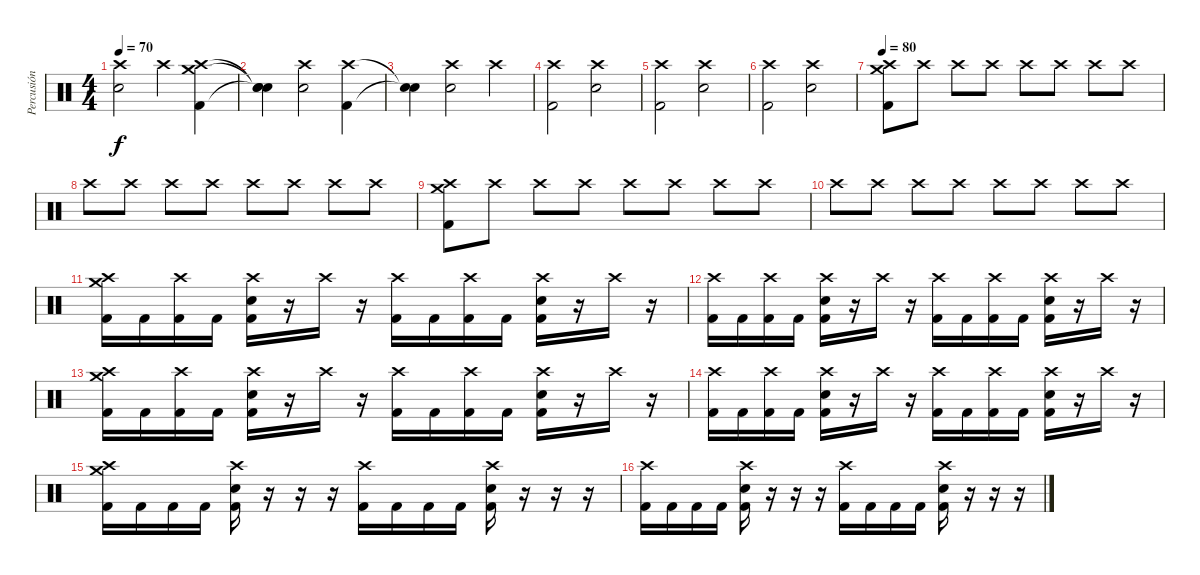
\track ("Percusión" "Percusión") {instrument percussion}
\staff {score}
\articulation defaults
\ts (4 4)
\tempo 70
\clef neutral
\ks c
("Crash high (hit)" "Snare (hit) 2").2{dy f} "Crash high (hit)".4 ("Crash medium (hit)" "Crash high (hit)" "Kick (hit) 2").4 |
("Snare (hit)"{t} "Snare (hit)"{t} "Snare (hit)"{t}).4 ("Crash high (hit)" "Snare (hit) 2").2 ("Crash high (hit)" "Kick (hit) 2").4 |
("Snare (hit)"{t} "Snare (hit)"{t}).4 ("Crash high (hit)" "Snare (hit) 2").2 "Crash high (hit)".4 |
("Crash high (hit)" "Kick (hit) 2").2 ("Crash high (hit)" "Snare (hit) 2").2 |
("Crash high (hit)" "Kick (hit) 2").2 ("Crash high (hit)" "Snare (hit) 2").2 |
("Crash high (hit)" "Kick (hit) 2").2 ("Crash high (hit)" "Snare (hit) 2").2 |
\tempo 80
("Crash medium (hit)" "Crash high (hit)" "Kick (hit) 2").8 "Crash high (hit)".8 "Crash high (hit)".8 "Crash high (hit)".8 "Crash high (hit)".8 "Crash high (hit)".8 "Crash high (hit)".8 "Crash high (hit)".8 |
"Crash high (hit)".8 "Crash high (hit)".8 "Crash high (hit)".8 "Crash high (hit)".8 "Crash high (hit)".8 "Crash high (hit)".8 "Crash high (hit)".8 "Crash high (hit)".8 |
("Crash medium (hit)" "Crash high (hit)" "Kick (hit) 2").8 "Crash high (hit)".8 "Crash high (hit)".8 "Crash high (hit)".8 "Crash high (hit)".8 "Crash high (hit)".8 "Crash high (hit)".8 "Crash high (hit)".8 |
"Crash high (hit)".8 "Crash high (hit)".8 "Crash high (hit)".8 "Crash high (hit)".8 "Crash high (hit)".8 "Crash high (hit)".8 "Crash high (hit)".8 "Crash high (hit)".8 |
("Crash medium (hit)" "Crash high (hit)" "Kick (hit) 2").16 "Kick (hit) 2".16 ("Crash high (hit)" "Kick (hit) 2").16 "Kick (hit) 2".16 ("Crash high (hit)" "Snare (hit) 2" "Kick (hit) 2").16 r.16 "Crash high (hit)".16 r.16 ("Crash high (hit)" "Kick (hit) 2").16 "Kick (hit) 2".16 ("Crash high (hit)" "Kick (hit) 2").16 "Kick (hit) 2".16 ("Crash high (hit)" "Snare (hit) 2" "Kick (hit) 2").16 r.16 "Crash high (hit)".16 r.16 |
("Crash high (hit)" "Kick (hit) 2").16 "Kick (hit) 2".16 ("Crash high (hit)" "Kick (hit) 2").16 "Kick (hit) 2".16 ("Crash high (hit)" "Snare (hit) 2" "Kick (hit) 2").16 r.16 "Crash high (hit)".16 r.16 ("Crash high (hit)" "Kick (hit) 2").16 "Kick (hit) 2".16 ("Crash high (hit)" "Kick (hit) 2").16 "Kick (hit) 2".16 ("Crash high (hit)" "Snare (hit) 2" "Kick (hit) 2").16 r.16 "Crash high (hit)".16 r.16 |
("Crash medium (hit)" "Crash high (hit)" "Kick (hit) 2").16 "Kick (hit) 2".16 ("Crash high (hit)" "Kick (hit) 2").16 "Kick (hit) 2".16 ("Crash high (hit)" "Snare (hit) 2" "Kick (hit) 2").16 r.16 "Crash high (hit)".16 r.16 ("Crash high (hit)" "Kick (hit) 2").16 "Kick (hit) 2".16 ("Crash high (hit)" "Kick (hit) 2").16 "Kick (hit) 2".16 ("Crash high (hit)" "Snare (hit) 2" "Kick (hit) 2").16 r.16 "Crash high (hit)".16 r.16 |
("Crash high (hit)" "Kick (hit) 2").16 "Kick (hit) 2".16 ("Crash high (hit)" "Kick (hit) 2").16 "Kick (hit) 2".16 ("Crash high (hit)" "Snare (hit) 2" "Kick (hit) 2").16 r.16 "Crash high (hit)".16 r.16 ("Crash high (hit)" "Kick (hit) 2").16 "Kick (hit) 2".16 ("Crash high (hit)" "Kick (hit) 2").16 "Kick (hit) 2".16 ("Crash high (hit)" "Snare (hit) 2" "Kick (hit) 2").16 r.16 "Crash high (hit)".16 r.16 |
("Crash medium (hit)" "Crash high (hit)" "Kick (hit) 2").16 "Kick (hit) 2".16 "Kick (hit) 2".16 "Kick (hit) 2".16 ("Crash high (hit)" "Snare (hit) 2" "Kick (hit) 2").16 r.16 r.16 r.16 ("Crash high (hit)" "Kick (hit) 2").16 "Kick (hit) 2".16 "Kick (hit) 2".16 "Kick (hit) 2".16 ("Crash high (hit)" "Snare (hit) 2" "Kick (hit) 2").16 r.16 r.16 r.16 |
("Crash high (hit)" "Kick (hit) 2").16 "Kick (hit) 2".16 "Kick (hit) 2".16 "Kick (hit) 2".16 ("Crash high (hit)" "Snare (hit) 2" "Kick (hit) 2").16 r.16 r.16 r.16 ("Crash high (hit)" "Kick (hit) 2").16 "Kick (hit) 2".16 "Kick (hit) 2".16 "Kick (hit) 2".16 ("Crash high (hit)" "Snare (hit) 2" "Kick (hit) 2").16 r.16 r.16 r.16
